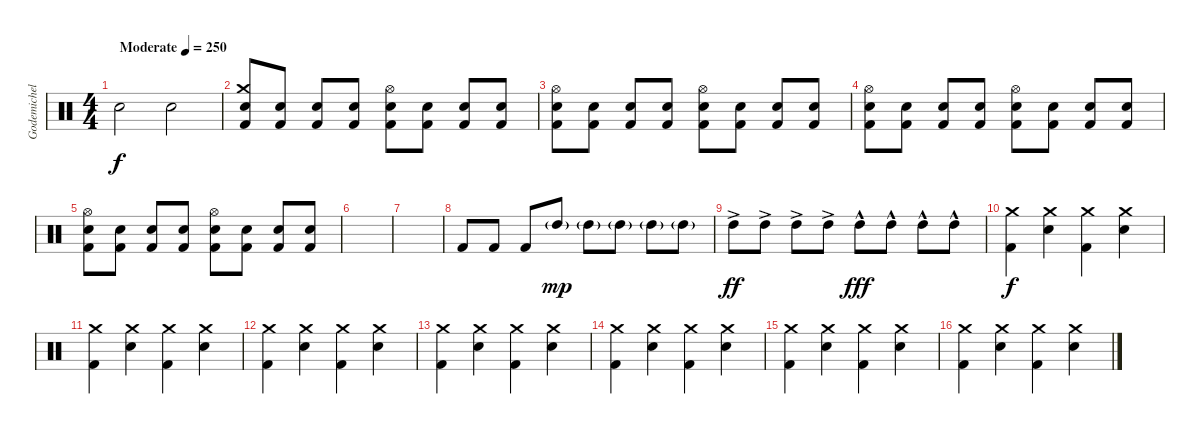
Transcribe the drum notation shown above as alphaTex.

\track ("Godemichel" "Godemichel") {instrument percussion}
\staff {score}
\articulation defaults
\ts (4 4)
\tempo (250 "Moderate")
\clef neutral
\ks c "Electric Snare (hit)".2{dy f} "Electric Snare (hit)".2
|
("Crash medium (hit)" "Electric Snare (hit)" "Kick (hit) 2").8 ("Electric Snare (hit)" "Kick (hit) 2").8 ("Electric Snare (hit)" "Kick (hit) 2").8 ("Electric Snare (hit)" "Kick (hit) 2").8 ("Hi-Hat (open)" "Electric Snare (hit)" "Kick (hit) 2").8 ("Electric Snare (hit)" "Kick (hit) 2").8 ("Electric Snare (hit)" "Kick (hit) 2").8 ("Electric Snare (hit)" "Kick (hit) 2").8 |
("Hi-Hat (open)" "Electric Snare (hit)" "Kick (hit) 2").8 ("Electric Snare (hit)" "Kick (hit) 2").8 ("Electric Snare (hit)" "Kick (hit) 2").8 ("Electric Snare (hit)" "Kick (hit) 2").8 ("Hi-Hat (open)" "Electric Snare (hit)" "Kick (hit) 2").8 ("Electric Snare (hit)" "Kick (hit) 2").8 ("Electric Snare (hit)" "Kick (hit) 2").8 ("Electric Snare (hit)" "Kick (hit) 2").8 |
("Hi-Hat (open)" "Electric Snare (hit)" "Kick (hit) 2").8 ("Electric Snare (hit)" "Kick (hit) 2").8 ("Electric Snare (hit)" "Kick (hit) 2").8 ("Electric Snare (hit)" "Kick (hit) 2").8 ("Hi-Hat (open)" "Electric Snare (hit)" "Kick (hit) 2").8 ("Electric Snare (hit)" "Kick (hit) 2").8 ("Electric Snare (hit)" "Kick (hit) 2").8 ("Electric Snare (hit)" "Kick (hit) 2").8 |
("Hi-Hat (open)" "Electric Snare (hit)" "Kick (hit) 2").8 ("Electric Snare (hit)" "Kick (hit) 2").8 ("Electric Snare (hit)" "Kick (hit) 2").8 ("Electric Snare (hit)" "Kick (hit) 2").8 ("Hi-Hat (open)" "Electric Snare (hit)" "Kick (hit) 2").8 ("Electric Snare (hit)" "Kick (hit) 2").8 ("Electric Snare (hit)" "Kick (hit) 2").8 ("Electric Snare (hit)" "Kick (hit) 2").8 |
|
|
"Kick (hit) 2".8 "Kick (hit) 2".8 "Kick (hit) 2".8 "High Tom (hit)"{g}.8{dy mp} "High Tom (hit)"{g}.8 "High Tom (hit)"{g}.8 "High Tom (hit)"{g}.8 "High Tom (hit)"{g}.8 |
"High Tom (hit)"{ac}.8{dy ff} "High Tom (hit)"{ac}.8 "High Tom (hit)"{ac}.8 "High Tom (hit)"{ac}.8 "High Tom (hit)"{hac}.8{dy fff} "High Tom (hit)"{hac}.8 "High Tom (hit)"{hac}.8 "High Tom (hit)"{hac}.8 |
("Crash medium (hit)" "Kick (hit) 2").4{dy f} ("Crash medium (hit)" "Electric Snare (hit)").4 ("Crash medium (hit)" "Kick (hit) 2").4 ("Crash medium (hit)" "Electric Snare (hit)").4 |
("Crash medium (hit)" "Kick (hit) 2").4 ("Crash medium (hit)" "Electric Snare (hit)").4 ("Crash medium (hit)" "Kick (hit) 2").4 ("Crash medium (hit)" "Electric Snare (hit)").4 |
("Crash medium (hit)" "Kick (hit) 2").4 ("Crash medium (hit)" "Electric Snare (hit)").4 ("Crash medium (hit)" "Kick (hit) 2").4 ("Crash medium (hit)" "Electric Snare (hit)").4 |
("Crash medium (hit)" "Kick (hit) 2").4 ("Crash medium (hit)" "Electric Snare (hit)").4 ("Crash medium (hit)" "Kick (hit) 2").4 ("Crash medium (hit)" "Electric Snare (hit)").4 |
("Crash medium (hit)" "Kick (hit) 2").4 ("Crash medium (hit)" "Electric Snare (hit)").4 ("Crash medium (hit)" "Kick (hit) 2").4 ("Crash medium (hit)" "Electric Snare (hit)").4 |
("Crash medium (hit)" "Kick (hit) 2").4 ("Crash medium (hit)" "Electric Snare (hit)").4 ("Crash medium (hit)" "Kick (hit) 2").4 ("Crash medium (hit)" "Electric Snare (hit)").4 |
("Crash medium (hit)" "Kick (hit) 2").4 ("Crash medium (hit)" "Electric Snare (hit)").4 ("Crash medium (hit)" "Kick (hit) 2").4 ("Crash medium (hit)" "Electric Snare (hit)").4
